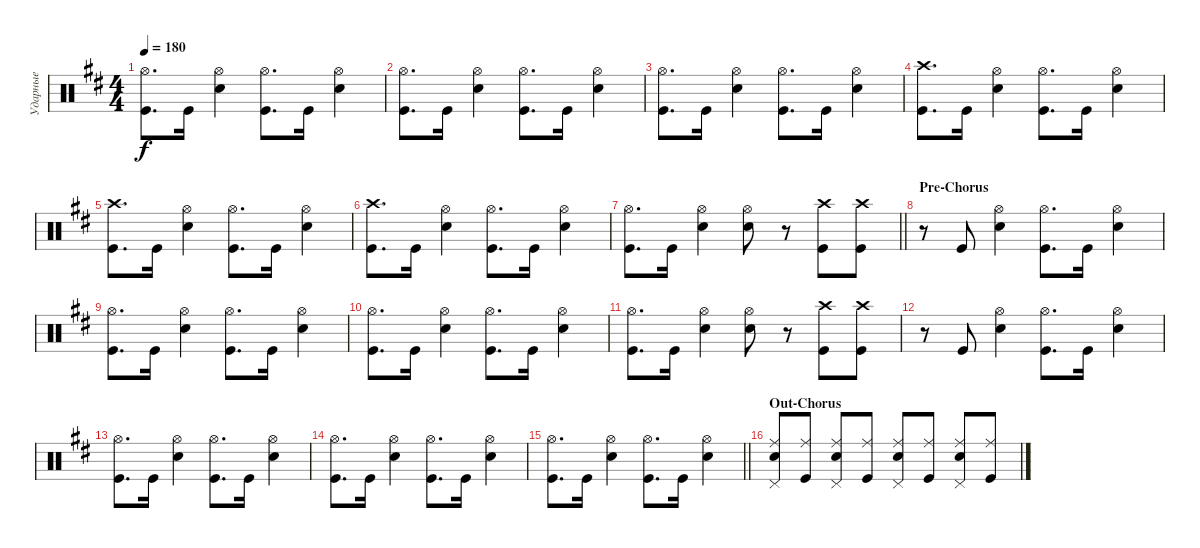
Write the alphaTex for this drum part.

\track ("Ударные" "Ударные") {instrument percussion}
\staff {score}
\articulation defaults
\ts (4 4)
\tempo 180
\clef neutral
\ks bminor
("Hi-Hat (open)" "Kick (hit)").8{d dy f} "Kick (hit)".16 ("Hi-Hat (open)" "Snare (hit) 2").4 ("Kick (hit)" "Hi-Hat (open)").8{d} "Kick (hit)".16 ("Snare (hit) 2" "Hi-Hat (open)").4 |
("Hi-Hat (open)" "Kick (hit)").8{d} "Kick (hit)".16 ("Hi-Hat (open)" "Snare (hit) 2").4 ("Kick (hit)" "Hi-Hat (open)").8{d} "Kick (hit)".16 ("Snare (hit) 2" "Hi-Hat (open)").4 |
("Hi-Hat (open)" "Kick (hit)").8{d} "Kick (hit)".16 ("Hi-Hat (open)" "Snare (hit) 2").4 ("Kick (hit)" "Hi-Hat (open)").8{d} "Kick (hit)".16 ("Snare (hit) 2" "Hi-Hat (open)").4 |
("Crash high (hit)" "Kick (hit)").8{d} "Kick (hit)".16 ("Hi-Hat (open)" "Snare (hit) 2").4 ("Kick (hit)" "Hi-Hat (open)").8{d} "Kick (hit)".16 ("Snare (hit) 2" "Hi-Hat (open)").4 |
("Crash high (hit)" "Kick (hit)").8{d} "Kick (hit)".16 ("Hi-Hat (open)" "Snare (hit) 2").4 ("Kick (hit)" "Hi-Hat (open)").8{d} "Kick (hit)".16 ("Snare (hit) 2" "Hi-Hat (open)").4 |
("Crash high (hit)" "Kick (hit)").8{d} "Kick (hit)".16 ("Hi-Hat (open)" "Snare (hit) 2").4 ("Kick (hit)" "Hi-Hat (open)").8{d} "Kick (hit)".16 ("Snare (hit) 2" "Hi-Hat (open)").4 |
\barLineRight lightlight
("Hi-Hat (open)" "Kick (hit)").8{d} "Kick (hit)".16 ("Hi-Hat (open)" "Snare (hit) 2").4 ("Hi-Hat (open)" "Snare (hit) 2").8{bd 480} r.8 ("Kick (hit)" "Crash high (hit)").8 ("Kick (hit)" "Crash high (hit)").8 |
\section ("" "Pre-Chorus")
r.8 "Kick (hit)".8 ("Hi-Hat (open)" "Snare (hit) 2").4 ("Kick (hit)" "Hi-Hat (open)").8{d} "Kick (hit)".16 ("Snare (hit) 2" "Hi-Hat (open)").4 |
("Hi-Hat (open)" "Kick (hit)").8{d} "Kick (hit)".16 ("Hi-Hat (open)" "Snare (hit) 2").4 ("Kick (hit)" "Hi-Hat (open)").8{d} "Kick (hit)".16 ("Snare (hit) 2" "Hi-Hat (open)").4 |
("Hi-Hat (open)" "Kick (hit)").8{d} "Kick (hit)".16 ("Hi-Hat (open)" "Snare (hit) 2").4 ("Kick (hit)" "Hi-Hat (open)").8{d} "Kick (hit)".16 ("Snare (hit) 2" "Hi-Hat (open)").4 |
("Hi-Hat (open)" "Kick (hit)").8{d} "Kick (hit)".16 ("Hi-Hat (open)" "Snare (hit) 2").4 ("Hi-Hat (open)" "Snare (hit) 2").8{bd 480} r.8 ("Kick (hit)" "Crash high (hit)").8 ("Kick (hit)" "Crash high (hit)").8 |
r.8 "Kick (hit)".8 ("Hi-Hat (open)" "Snare (hit) 2").4 ("Kick (hit)" "Hi-Hat (open)").8{d} "Kick (hit)".16 ("Snare (hit) 2" "Hi-Hat (open)").4 |
("Hi-Hat (open)" "Kick (hit)").8{d} "Kick (hit)".16 ("Hi-Hat (open)" "Snare (hit) 2").4 ("Kick (hit)" "Hi-Hat (open)").8{d} "Kick (hit)".16 ("Snare (hit) 2" "Hi-Hat (open)").4 |
("Hi-Hat (open)" "Kick (hit)").8{d} "Kick (hit)".16 ("Hi-Hat (open)" "Snare (hit) 2").4 ("Kick (hit)" "Hi-Hat (open)").8{d} "Kick (hit)".16 ("Snare (hit) 2" "Hi-Hat (open)").4 |
\barLineRight lightlight
("Hi-Hat (open)" "Kick (hit)").8{d} "Kick (hit)".16 ("Hi-Hat (open)" "Snare (hit) 2").4 ("Kick (hit)" "Hi-Hat (open)").8{d} "Kick (hit)".16 ("Snare (hit) 2" "Hi-Hat (open)").4 |
\section ("" "Out-Chorus")
("Ride (middle)" "Snare (hit) 2" "Pedal Hi-Hat (hit)").8 ("Kick (hit)" "Ride (middle)").8 ("Pedal Hi-Hat (hit)" "Snare (hit) 2" "Ride (middle)").8 ("Kick (hit)" "Ride (middle)").8 ("Pedal Hi-Hat (hit)" "Snare (hit) 2" "Ride (middle)").8 ("Kick (hit)" "Ride (middle)").8 ("Pedal Hi-Hat (hit)" "Snare (hit) 2" "Ride (middle)").8 ("Kick (hit)" "Ride (middle)").8
